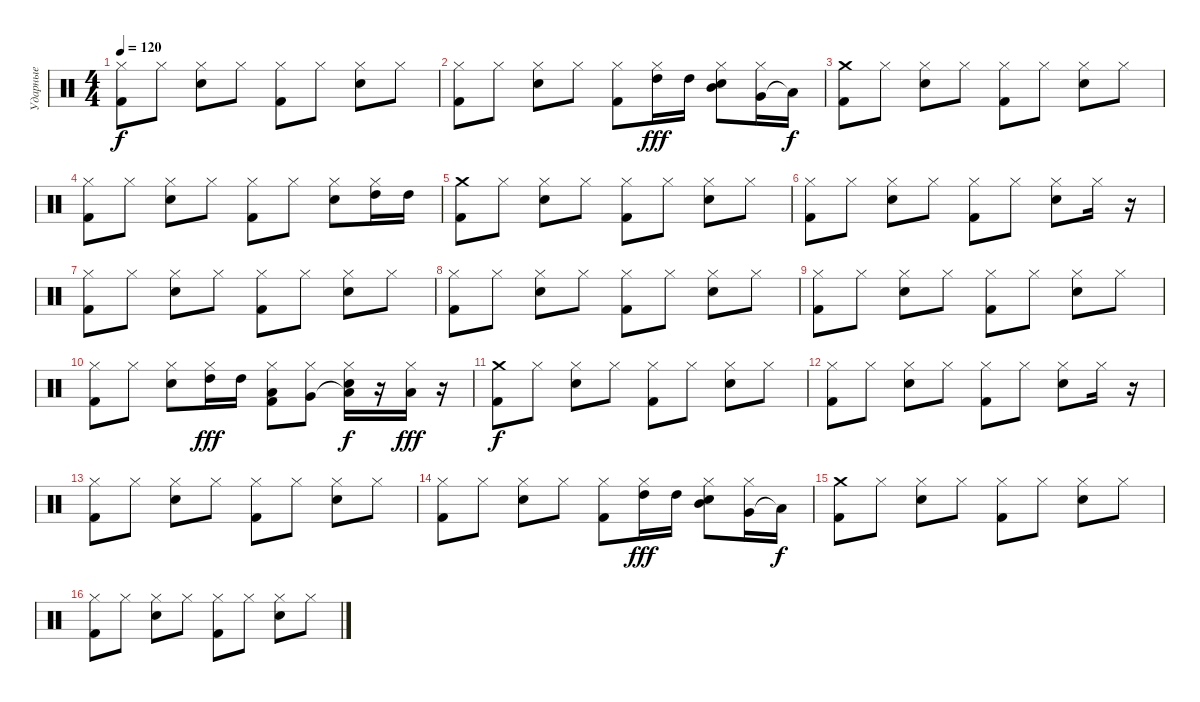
\track ("Ударные" "Ударные") {instrument percussion}
\staff {score}
\articulation defaults
\ts (4 4)
\tempo 120
\clef neutral
\ks c
("Kick (hit) 2" "Hi-Hat (closed)").8{dy f} "Hi-Hat (closed)".8 ("Electric Snare (hit)" "Hi-Hat (closed)").8 "Hi-Hat (closed)".8 ("Kick (hit) 2" "Hi-Hat (closed)").8 "Hi-Hat (closed)".8 ("Electric Snare (hit)" "Hi-Hat (closed)").8 "Hi-Hat (closed)".8 |
("Hi-Hat (closed)" "Kick (hit) 2").8 "Hi-Hat (closed)".8 ("Hi-Hat (closed)" "Electric Snare (hit)").8 "Hi-Hat (closed)".8 ("Hi-Hat (closed)" "Kick (hit) 2").8 ("High Tom (hit)" "Hi-Hat (closed)").16{dy fff} "High Tom (hit)".16 ("Mid Tom (hit)" "Hi-Hat (closed)" "Electric Snare (hit)").8 ("Very Low Tom (hit)" "Hi-Hat (closed)").16 "Low Floor Tom (hit)"{t}.16{dy f} |
("Kick (hit) 2" "Crash medium (hit)").8 "Hi-Hat (closed)".8 ("Electric Snare (hit)" "Hi-Hat (closed)").8 "Hi-Hat (closed)".8 ("Kick (hit) 2" "Hi-Hat (closed)").8 "Hi-Hat (closed)".8 ("Electric Snare (hit)" "Hi-Hat (closed)").8 "Hi-Hat (closed)".8 |
("Kick (hit) 2" "Hi-Hat (closed)").8 "Hi-Hat (closed)".8 ("Electric Snare (hit)" "Hi-Hat (closed)").8 "Hi-Hat (closed)".8 ("Kick (hit) 2" "Hi-Hat (closed)").8 "Hi-Hat (closed)".8 ("Electric Snare (hit)" "Hi-Hat (closed)").8 ("Hi-Hat (closed)" "High Tom (hit)").16 "High Tom (hit)".16 |
("Kick (hit) 2" "Crash medium (hit)").8 "Hi-Hat (closed)".8 ("Electric Snare (hit)" "Hi-Hat (closed)").8 "Hi-Hat (closed)".8 ("Kick (hit) 2" "Hi-Hat (closed)").8 "Hi-Hat (closed)".8 ("Electric Snare (hit)" "Hi-Hat (closed)").8 "Hi-Hat (closed)".8 |
("Kick (hit) 2" "Hi-Hat (closed)").8 "Hi-Hat (closed)".8 ("Electric Snare (hit)" "Hi-Hat (closed)").8 "Hi-Hat (closed)".8 ("Kick (hit) 2" "Hi-Hat (closed)").8 "Hi-Hat (closed)".8 ("Electric Snare (hit)" "Hi-Hat (closed)").8 "Hi-Hat (closed)".16 r.16 |
("Kick (hit) 2" "Hi-Hat (closed)").8 "Hi-Hat (closed)".8 ("Electric Snare (hit)" "Hi-Hat (closed)").8 "Hi-Hat (closed)".8 ("Kick (hit) 2" "Hi-Hat (closed)").8 "Hi-Hat (closed)".8 ("Electric Snare (hit)" "Hi-Hat (closed)").8 "Hi-Hat (closed)".8 |
("Kick (hit) 2" "Hi-Hat (closed)").8 "Hi-Hat (closed)".8 ("Electric Snare (hit)" "Hi-Hat (closed)").8 "Hi-Hat (closed)".8 ("Kick (hit) 2" "Hi-Hat (closed)").8 "Hi-Hat (closed)".8 ("Electric Snare (hit)" "Hi-Hat (closed)").8 "Hi-Hat (closed)".8 |
("Kick (hit) 2" "Hi-Hat (closed)").8 "Hi-Hat (closed)".8 ("Electric Snare (hit)" "Hi-Hat (closed)").8 "Hi-Hat (closed)".8 ("Kick (hit) 2" "Hi-Hat (closed)").8 "Hi-Hat (closed)".8 ("Electric Snare (hit)" "Hi-Hat (closed)").8 "Hi-Hat (closed)".8 |
("Hi-Hat (closed)" "Kick (hit) 2").8 "Hi-Hat (closed)".8 ("Hi-Hat (closed)" "Electric Snare (hit)").8 ("High Tom (hit)" "Hi-Hat (closed)").16{dy fff} "High Tom (hit)".16 ("Low Floor Tom (hit)" "Hi-Hat (closed)" "Kick (hit) 2").8 ("Very Low Tom (hit)" "Hi-Hat (closed)").8 ("Low Tom (hit)"{t} "Hi-Hat (closed)" "Electric Snare (hit)").16{dy f} r.16 ("Low Floor Tom (hit)" "Hi-Hat (closed)").16{dy fff} r.16 |
("Kick (hit) 2" "Crash medium (hit)").8{dy f} "Hi-Hat (closed)".8 ("Electric Snare (hit)" "Hi-Hat (closed)").8 "Hi-Hat (closed)".8 ("Kick (hit) 2" "Hi-Hat (closed)").8 "Hi-Hat (closed)".8 ("Electric Snare (hit)" "Hi-Hat (closed)").8 "Hi-Hat (closed)".8 |
("Kick (hit) 2" "Hi-Hat (closed)").8 "Hi-Hat (closed)".8 ("Electric Snare (hit)" "Hi-Hat (closed)").8 "Hi-Hat (closed)".8 ("Kick (hit) 2" "Hi-Hat (closed)").8 "Hi-Hat (closed)".8 ("Electric Snare (hit)" "Hi-Hat (closed)").8 "Hi-Hat (closed)".16 r.16 |
("Kick (hit) 2" "Hi-Hat (closed)").8 "Hi-Hat (closed)".8 ("Electric Snare (hit)" "Hi-Hat (closed)").8 "Hi-Hat (closed)".8 ("Kick (hit) 2" "Hi-Hat (closed)").8 "Hi-Hat (closed)".8 ("Electric Snare (hit)" "Hi-Hat (closed)").8 "Hi-Hat (closed)".8 |
("Hi-Hat (closed)" "Kick (hit) 2").8 "Hi-Hat (closed)".8 ("Hi-Hat (closed)" "Electric Snare (hit)").8 "Hi-Hat (closed)".8 ("Hi-Hat (closed)" "Kick (hit) 2").8 ("High Tom (hit)" "Hi-Hat (closed)").16{dy fff} "High Tom (hit)".16 ("Mid Tom (hit)" "Hi-Hat (closed)" "Electric Snare (hit)").8 ("Very Low Tom (hit)" "Hi-Hat (closed)").16 "Low Floor Tom (hit)"{t}.16{dy f} |
("Kick (hit) 2" "Crash medium (hit)").8 "Hi-Hat (closed)".8 ("Electric Snare (hit)" "Hi-Hat (closed)").8 "Hi-Hat (closed)".8 ("Kick (hit) 2" "Hi-Hat (closed)").8 "Hi-Hat (closed)".8 ("Electric Snare (hit)" "Hi-Hat (closed)").8 "Hi-Hat (closed)".8 |
("Kick (hit) 2" "Hi-Hat (closed)").8 "Hi-Hat (closed)".8 ("Electric Snare (hit)" "Hi-Hat (closed)").8 "Hi-Hat (closed)".8 ("Kick (hit) 2" "Hi-Hat (closed)").8 "Hi-Hat (closed)".8 ("Electric Snare (hit)" "Hi-Hat (closed)").8 "Hi-Hat (closed)".8
